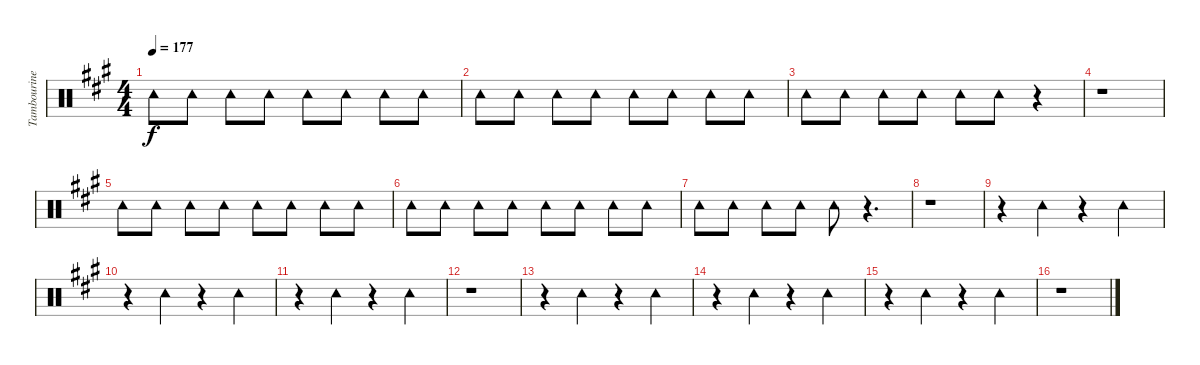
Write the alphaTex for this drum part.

\track ("Tambourine" "Tambourine") {instrument percussion}
\staff {score}
\articulation defaults
\ts (4 4)
\tempo 177
\clef neutral
\ks a "Tambourine (hit)".8{dy f} "Tambourine (hit)".8 "Tambourine (hit)".8 "Tambourine (hit)".8 "Tambourine (hit)".8 "Tambourine (hit)".8 "Tambourine (hit)".8 "Tambourine (hit)".8
|
"Tambourine (hit)".8 "Tambourine (hit)".8 "Tambourine (hit)".8 "Tambourine (hit)".8 "Tambourine (hit)".8 "Tambourine (hit)".8 "Tambourine (hit)".8 "Tambourine (hit)".8 |
"Tambourine (hit)".8 "Tambourine (hit)".8 "Tambourine (hit)".8 "Tambourine (hit)".8 "Tambourine (hit)".8 "Tambourine (hit)".8 r.4 |
r.1 |
"Tambourine (hit)".8 "Tambourine (hit)".8 "Tambourine (hit)".8 "Tambourine (hit)".8 "Tambourine (hit)".8 "Tambourine (hit)".8 "Tambourine (hit)".8 "Tambourine (hit)".8 |
"Tambourine (hit)".8 "Tambourine (hit)".8 "Tambourine (hit)".8 "Tambourine (hit)".8 "Tambourine (hit)".8 "Tambourine (hit)".8 "Tambourine (hit)".8 "Tambourine (hit)".8 |
"Tambourine (hit)".8 "Tambourine (hit)".8 "Tambourine (hit)".8 "Tambourine (hit)".8 "Tambourine (hit)".8 r.4{d} |
r.1 |
r.4 "Tambourine (hit)".4 r.4 "Tambourine (hit)".4 |
r.4 "Tambourine (hit)".4 r.4 "Tambourine (hit)".4 |
r.4 "Tambourine (hit)".4 r.4 "Tambourine (hit)".4 |
r.1 |
r.4 "Tambourine (hit)".4 r.4 "Tambourine (hit)".4 |
r.4 "Tambourine (hit)".4 r.4 "Tambourine (hit)".4 |
r.4 "Tambourine (hit)".4 r.4 "Tambourine (hit)".4 |
r.1
